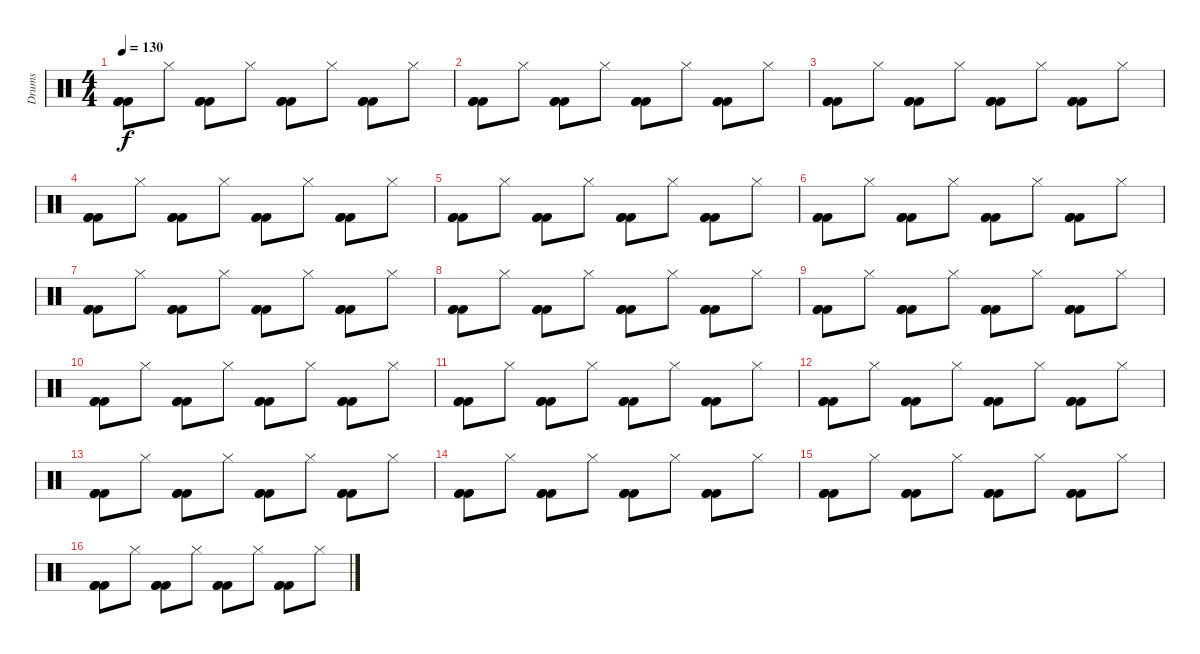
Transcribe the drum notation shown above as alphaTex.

\track ("Drums" "Drums") {instrument percussion}
\staff {score}
\articulation defaults
\ts (4 4)
\tempo 130
\clef neutral
\ks c
("Kick (hit) 2" "Kick (hit) 2" "Kick (hit) 2").8{dy f} "Hi-Hat (closed)".8 ("Kick (hit) 2" "Kick (hit) 2" "Kick (hit) 2").8 "Hi-Hat (closed)".8 ("Kick (hit) 2" "Kick (hit) 2" "Kick (hit) 2").8 "Hi-Hat (closed)".8 ("Kick (hit) 2" "Kick (hit) 2" "Kick (hit) 2").8 "Hi-Hat (closed)".8 |
("Kick (hit) 2" "Kick (hit) 2" "Kick (hit) 2").8 "Hi-Hat (closed)".8 ("Kick (hit) 2" "Kick (hit) 2" "Kick (hit) 2").8 "Hi-Hat (closed)".8 ("Kick (hit) 2" "Kick (hit) 2" "Kick (hit) 2").8 "Hi-Hat (closed)".8 ("Kick (hit) 2" "Kick (hit) 2" "Kick (hit) 2").8 "Hi-Hat (closed)".8 |
("Kick (hit) 2" "Kick (hit) 2" "Kick (hit) 2").8 "Hi-Hat (closed)".8 ("Kick (hit) 2" "Kick (hit) 2" "Kick (hit) 2").8 "Hi-Hat (closed)".8 ("Kick (hit) 2" "Kick (hit) 2" "Kick (hit) 2").8 "Hi-Hat (closed)".8 ("Kick (hit) 2" "Kick (hit) 2" "Kick (hit) 2").8 "Hi-Hat (closed)".8 |
("Kick (hit) 2" "Kick (hit) 2" "Kick (hit) 2").8 "Hi-Hat (closed)".8 ("Kick (hit) 2" "Kick (hit) 2" "Kick (hit) 2").8 "Hi-Hat (closed)".8 ("Kick (hit) 2" "Kick (hit) 2" "Kick (hit) 2").8 "Hi-Hat (closed)".8 ("Kick (hit) 2" "Kick (hit) 2" "Kick (hit) 2").8 "Hi-Hat (closed)".8 |
("Kick (hit) 2" "Kick (hit) 2" "Kick (hit) 2").8 "Hi-Hat (closed)".8 ("Kick (hit) 2" "Kick (hit) 2" "Kick (hit) 2").8 "Hi-Hat (closed)".8 ("Kick (hit) 2" "Kick (hit) 2" "Kick (hit) 2").8 "Hi-Hat (closed)".8 ("Kick (hit) 2" "Kick (hit) 2" "Kick (hit) 2").8 "Hi-Hat (closed)".8 |
("Kick (hit) 2" "Kick (hit) 2" "Kick (hit) 2").8 "Hi-Hat (closed)".8 ("Kick (hit) 2" "Kick (hit) 2" "Kick (hit) 2").8 "Hi-Hat (closed)".8 ("Kick (hit) 2" "Kick (hit) 2" "Kick (hit) 2").8 "Hi-Hat (closed)".8 ("Kick (hit) 2" "Kick (hit) 2" "Kick (hit) 2").8 "Hi-Hat (closed)".8 |
("Kick (hit) 2" "Kick (hit) 2" "Kick (hit) 2").8 "Hi-Hat (closed)".8 ("Kick (hit) 2" "Kick (hit) 2" "Kick (hit) 2").8 "Hi-Hat (closed)".8 ("Kick (hit) 2" "Kick (hit) 2" "Kick (hit) 2").8 "Hi-Hat (closed)".8 ("Kick (hit) 2" "Kick (hit) 2" "Kick (hit) 2").8 "Hi-Hat (closed)".8 |
("Kick (hit) 2" "Kick (hit) 2" "Kick (hit) 2").8 "Hi-Hat (closed)".8 ("Kick (hit) 2" "Kick (hit) 2" "Kick (hit) 2").8 "Hi-Hat (closed)".8 ("Kick (hit) 2" "Kick (hit) 2" "Kick (hit) 2").8 "Hi-Hat (closed)".8 ("Kick (hit) 2" "Kick (hit) 2" "Kick (hit) 2").8 "Hi-Hat (closed)".8 |
("Kick (hit) 2" "Kick (hit) 2" "Kick (hit) 2").8 "Hi-Hat (closed)".8 ("Kick (hit) 2" "Kick (hit) 2" "Kick (hit) 2").8 "Hi-Hat (closed)".8 ("Kick (hit) 2" "Kick (hit) 2" "Kick (hit) 2").8 "Hi-Hat (closed)".8 ("Kick (hit) 2" "Kick (hit) 2" "Kick (hit) 2").8 "Hi-Hat (closed)".8 |
("Kick (hit) 2" "Kick (hit) 2" "Kick (hit) 2").8 "Hi-Hat (closed)".8 ("Kick (hit) 2" "Kick (hit) 2" "Kick (hit) 2").8 "Hi-Hat (closed)".8 ("Kick (hit) 2" "Kick (hit) 2" "Kick (hit) 2").8 "Hi-Hat (closed)".8 ("Kick (hit) 2" "Kick (hit) 2" "Kick (hit) 2").8 "Hi-Hat (closed)".8 |
("Kick (hit) 2" "Kick (hit) 2" "Kick (hit) 2").8 "Hi-Hat (closed)".8 ("Kick (hit) 2" "Kick (hit) 2" "Kick (hit) 2").8 "Hi-Hat (closed)".8 ("Kick (hit) 2" "Kick (hit) 2" "Kick (hit) 2").8 "Hi-Hat (closed)".8 ("Kick (hit) 2" "Kick (hit) 2" "Kick (hit) 2").8 "Hi-Hat (closed)".8 |
("Kick (hit) 2" "Kick (hit) 2" "Kick (hit) 2").8 "Hi-Hat (closed)".8 ("Kick (hit) 2" "Kick (hit) 2" "Kick (hit) 2").8 "Hi-Hat (closed)".8 ("Kick (hit) 2" "Kick (hit) 2" "Kick (hit) 2").8 "Hi-Hat (closed)".8 ("Kick (hit) 2" "Kick (hit) 2" "Kick (hit) 2").8 "Hi-Hat (closed)".8 |
("Kick (hit) 2" "Kick (hit) 2" "Kick (hit) 2").8 "Hi-Hat (closed)".8 ("Kick (hit) 2" "Kick (hit) 2" "Kick (hit) 2").8 "Hi-Hat (closed)".8 ("Kick (hit) 2" "Kick (hit) 2" "Kick (hit) 2").8 "Hi-Hat (closed)".8 ("Kick (hit) 2" "Kick (hit) 2" "Kick (hit) 2").8 "Hi-Hat (closed)".8 |
("Kick (hit) 2" "Kick (hit) 2" "Kick (hit) 2").8 "Hi-Hat (closed)".8 ("Kick (hit) 2" "Kick (hit) 2" "Kick (hit) 2").8 "Hi-Hat (closed)".8 ("Kick (hit) 2" "Kick (hit) 2" "Kick (hit) 2").8 "Hi-Hat (closed)".8 ("Kick (hit) 2" "Kick (hit) 2" "Kick (hit) 2").8 "Hi-Hat (closed)".8 |
("Kick (hit) 2" "Kick (hit) 2" "Kick (hit) 2").8 "Hi-Hat (closed)".8 ("Kick (hit) 2" "Kick (hit) 2" "Kick (hit) 2").8 "Hi-Hat (closed)".8 ("Kick (hit) 2" "Kick (hit) 2" "Kick (hit) 2").8 "Hi-Hat (closed)".8 ("Kick (hit) 2" "Kick (hit) 2" "Kick (hit) 2").8 "Hi-Hat (closed)".8 |
("Kick (hit) 2" "Kick (hit) 2" "Kick (hit) 2").8 "Hi-Hat (closed)".8 ("Kick (hit) 2" "Kick (hit) 2" "Kick (hit) 2").8 "Hi-Hat (closed)".8 ("Kick (hit) 2" "Kick (hit) 2" "Kick (hit) 2").8 "Hi-Hat (closed)".8 ("Kick (hit) 2" "Kick (hit) 2" "Kick (hit) 2").8 "Hi-Hat (closed)".8
